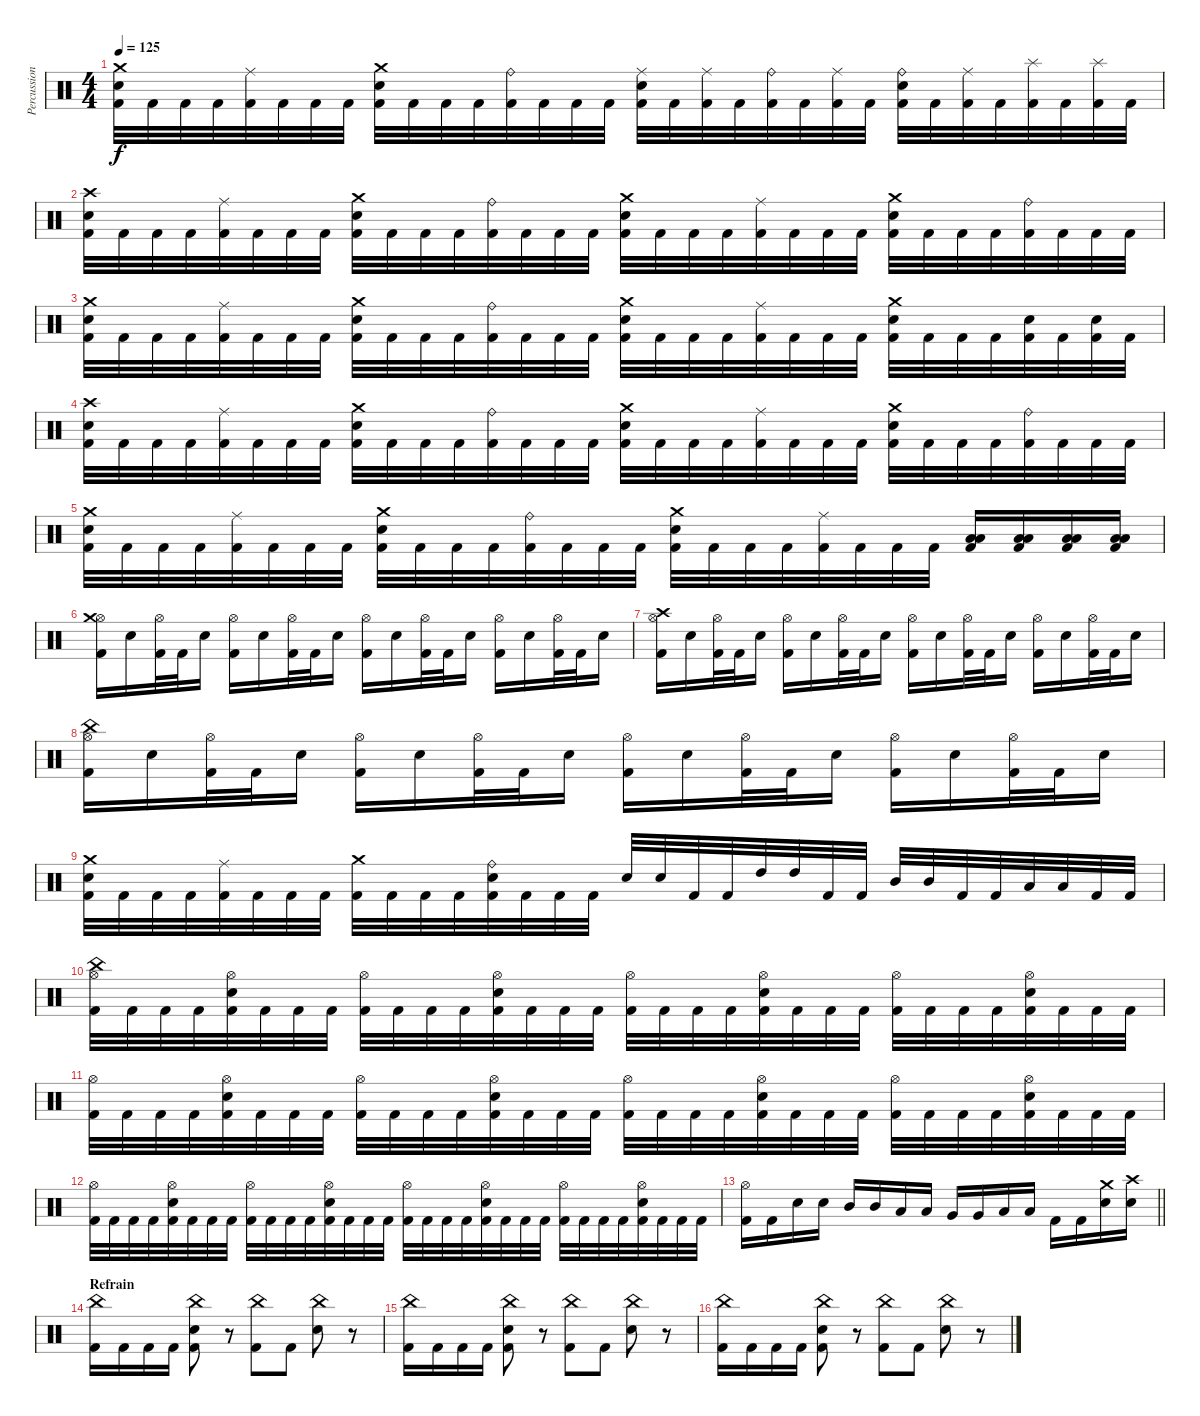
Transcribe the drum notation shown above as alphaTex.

\track ("Percussions" "Percussion") {instrument percussion}
\staff {score}
\articulation defaults
\ts (4 4)
\tempo 125
\clef neutral
\ks c
("Crash medium (hit)" "Electric Snare (hit)" "Kick (hit) 2").32{dy f} "Kick (hit) 2".32 "Kick (hit) 2".32 "Kick (hit) 2".32 ("Ride (middle)" "Kick (hit) 2").32 "Kick (hit) 2".32 "Kick (hit) 2".32 "Kick (hit) 2".32 ("Crash medium (hit)" "Electric Snare (hit)" "Kick (hit) 2").32 "Kick (hit) 2".32 "Kick (hit) 2".32 "Kick (hit) 2".32 ("Ride (bell)" "Kick (hit) 2").32 "Kick (hit) 2".32 "Kick (hit) 2".32 "Kick (hit) 2".32 ("Ride (middle)" "Electric Snare (hit)" "Kick (hit) 2").32 "Kick (hit) 2".32 ("Ride (middle)" "Kick (hit) 2").32 "Kick (hit) 2".32 ("Ride (bell)" "Kick (hit) 2").32 "Kick (hit) 2".32 ("Ride (middle)" "Kick (hit) 2").32 "Kick (hit) 2".32 ("Ride (bell)" "Electric Snare (hit)" "Kick (hit) 2").32 "Kick (hit) 2".32 ("Ride (middle)" "Kick (hit) 2").32 "Kick (hit) 2".32 ("Splash (hit)" "Kick (hit) 2").32 "Kick (hit) 2".32 ("Splash (hit)" "Kick (hit) 2").32 "Kick (hit) 2".32 |
("Crash high (hit)" "Electric Snare (hit)" "Kick (hit) 2").32 "Kick (hit) 2".32 "Kick (hit) 2".32 "Kick (hit) 2".32 ("Ride (middle)" "Kick (hit) 2").32 "Kick (hit) 2".32 "Kick (hit) 2".32 "Kick (hit) 2".32 ("Crash medium (hit)" "Electric Snare (hit)" "Kick (hit) 2").32 "Kick (hit) 2".32 "Kick (hit) 2".32 "Kick (hit) 2".32 ("Ride (bell)" "Kick (hit) 2").32 "Kick (hit) 2".32 "Kick (hit) 2".32 "Kick (hit) 2".32 ("Crash medium (hit)" "Electric Snare (hit)" "Kick (hit) 2").32 "Kick (hit) 2".32 "Kick (hit) 2".32 "Kick (hit) 2".32 ("Ride (middle)" "Kick (hit) 2").32 "Kick (hit) 2".32 "Kick (hit) 2".32 "Kick (hit) 2".32 ("Crash medium (hit)" "Electric Snare (hit)" "Kick (hit) 2").32 "Kick (hit) 2".32 "Kick (hit) 2".32 "Kick (hit) 2".32 ("Ride (bell)" "Kick (hit) 2").32 "Kick (hit) 2".32 "Kick (hit) 2".32 "Kick (hit) 2".32 |
("Crash medium (hit)" "Electric Snare (hit)" "Kick (hit) 2").32 "Kick (hit) 2".32 "Kick (hit) 2".32 "Kick (hit) 2".32 ("Ride (middle)" "Kick (hit) 2").32 "Kick (hit) 2".32 "Kick (hit) 2".32 "Kick (hit) 2".32 ("Crash medium (hit)" "Electric Snare (hit)" "Kick (hit) 2").32 "Kick (hit) 2".32 "Kick (hit) 2".32 "Kick (hit) 2".32 ("Ride (bell)" "Kick (hit) 2").32 "Kick (hit) 2".32 "Kick (hit) 2".32 "Kick (hit) 2".32 ("Crash medium (hit)" "Electric Snare (hit)" "Kick (hit) 2").32 "Kick (hit) 2".32 "Kick (hit) 2".32 "Kick (hit) 2".32 ("Ride (middle)" "Kick (hit) 2").32 "Kick (hit) 2".32 "Kick (hit) 2".32 "Kick (hit) 2".32 ("Crash medium (hit)" "Electric Snare (hit)" "Kick (hit) 2").32 "Kick (hit) 2".32 "Kick (hit) 2".32 "Kick (hit) 2".32 ("Electric Snare (hit)" "Kick (hit) 2").32 "Kick (hit) 2".32 ("Electric Snare (hit)" "Kick (hit) 2").32 "Kick (hit) 2".32 |
("Crash high (hit)" "Electric Snare (hit)" "Kick (hit) 2").32 "Kick (hit) 2".32 "Kick (hit) 2".32 "Kick (hit) 2".32 ("Ride (middle)" "Kick (hit) 2").32 "Kick (hit) 2".32 "Kick (hit) 2".32 "Kick (hit) 2".32 ("Crash medium (hit)" "Electric Snare (hit)" "Kick (hit) 2").32 "Kick (hit) 2".32 "Kick (hit) 2".32 "Kick (hit) 2".32 ("Ride (bell)" "Kick (hit) 2").32 "Kick (hit) 2".32 "Kick (hit) 2".32 "Kick (hit) 2".32 ("Crash medium (hit)" "Electric Snare (hit)" "Kick (hit) 2").32 "Kick (hit) 2".32 "Kick (hit) 2".32 "Kick (hit) 2".32 ("Ride (middle)" "Kick (hit) 2").32 "Kick (hit) 2".32 "Kick (hit) 2".32 "Kick (hit) 2".32 ("Crash medium (hit)" "Electric Snare (hit)" "Kick (hit) 2").32 "Kick (hit) 2".32 "Kick (hit) 2".32 "Kick (hit) 2".32 ("Ride (bell)" "Kick (hit) 2").32 "Kick (hit) 2".32 "Kick (hit) 2".32 "Kick (hit) 2".32 |
("Crash medium (hit)" "Electric Snare (hit)" "Kick (hit) 2").32 "Kick (hit) 2".32 "Kick (hit) 2".32 "Kick (hit) 2".32 ("Ride (middle)" "Kick (hit) 2").32 "Kick (hit) 2".32 "Kick (hit) 2".32 "Kick (hit) 2".32 ("Crash medium (hit)" "Electric Snare (hit)" "Kick (hit) 2").32 "Kick (hit) 2".32 "Kick (hit) 2".32 "Kick (hit) 2".32 ("Ride (bell)" "Kick (hit) 2").32 "Kick (hit) 2".32 "Kick (hit) 2".32 "Kick (hit) 2".32 ("Crash medium (hit)" "Electric Snare (hit)" "Kick (hit) 2").32 "Kick (hit) 2".32 "Kick (hit) 2".32 "Kick (hit) 2".32 ("Ride (middle)" "Kick (hit) 2").32 "Kick (hit) 2".32 "Kick (hit) 2".32 "Kick (hit) 2".32 ("Low Tom (hit)" "Low Floor Tom (hit)" "Kick (hit) 2").16 ("Low Tom (hit)" "Low Floor Tom (hit)" "Kick (hit) 2").16 ("Low Tom (hit)" "Low Floor Tom (hit)" "Kick (hit) 2").16 ("Low Tom (hit)" "Low Floor Tom (hit)" "Kick (hit) 2").16 |
("Hi-Hat (open)" "Crash medium (hit)" "Kick (hit) 2").16 "Electric Snare (hit)".16 ("Hi-Hat (open)" "Kick (hit) 2").32 "Kick (hit) 2".32 "Electric Snare (hit)".16 ("Hi-Hat (open)" "Kick (hit) 2").16 "Electric Snare (hit)".16 ("Hi-Hat (open)" "Kick (hit) 2").32 "Kick (hit) 2".32 "Electric Snare (hit)".16 ("Hi-Hat (open)" "Kick (hit) 2").16 "Electric Snare (hit)".16 ("Hi-Hat (open)" "Kick (hit) 2").32 "Kick (hit) 2".32 "Electric Snare (hit)".16 ("Hi-Hat (open)" "Kick (hit) 2").16 "Electric Snare (hit)".16 ("Hi-Hat (open)" "Kick (hit) 2").32 "Kick (hit) 2".32 "Electric Snare (hit)".16 |
("Hi-Hat (open)" "Crash high (hit)" "Kick (hit) 2").16 "Electric Snare (hit)".16 ("Hi-Hat (open)" "Kick (hit) 2").32 "Kick (hit) 2".32 "Electric Snare (hit)".16 ("Hi-Hat (open)" "Kick (hit) 2").16 "Electric Snare (hit)".16 ("Hi-Hat (open)" "Kick (hit) 2").32 "Kick (hit) 2".32 "Electric Snare (hit)".16 ("Hi-Hat (open)" "Kick (hit) 2").16 "Electric Snare (hit)".16 ("Hi-Hat (open)" "Kick (hit) 2").32 "Kick (hit) 2".32 "Electric Snare (hit)".16 ("Hi-Hat (open)" "Kick (hit) 2").16 "Electric Snare (hit)".16 ("Hi-Hat (open)" "Kick (hit) 2").32 "Kick (hit) 2".32 "Electric Snare (hit)".16 |
("Hi-Hat (open)" "China (hit)" "Kick (hit) 2").16 "Electric Snare (hit)".16 ("Hi-Hat (open)" "Kick (hit) 2").32 "Kick (hit) 2".32 "Electric Snare (hit)".16 ("Hi-Hat (open)" "Kick (hit) 2").16 "Electric Snare (hit)".16 ("Hi-Hat (open)" "Kick (hit) 2").32 "Kick (hit) 2".32 "Electric Snare (hit)".16 ("Hi-Hat (open)" "Kick (hit) 2").16 "Electric Snare (hit)".16 ("Hi-Hat (open)" "Kick (hit) 2").32 "Kick (hit) 2".32 "Electric Snare (hit)".16 ("Hi-Hat (open)" "Kick (hit) 2").16 "Electric Snare (hit)".16 ("Hi-Hat (open)" "Kick (hit) 2").32 "Kick (hit) 2".32 "Electric Snare (hit)".16 |
("Crash medium (hit)" "Electric Snare (hit)" "Kick (hit) 2").32 "Kick (hit) 2".32 "Kick (hit) 2".32 "Kick (hit) 2".32 ("Ride (middle)" "Kick (hit) 2").32 "Kick (hit) 2".32 "Kick (hit) 2".32 "Kick (hit) 2".32 ("Crash medium (hit)" "Kick (hit) 2").32 "Kick (hit) 2".32 "Kick (hit) 2".32 "Kick (hit) 2".32 ("Ride (bell)" "Electric Snare (hit)" "Kick (hit) 2").32 "Kick (hit) 2".32 "Kick (hit) 2".32 "Kick (hit) 2".32 "Electric Snare (hit)".32 "Electric Snare (hit)".32 "Kick (hit) 2".32 "Kick (hit) 2".32 "High Tom (hit)".32 "High Tom (hit)".32 "Kick (hit) 2".32 "Kick (hit) 2".32 "Mid Tom (hit)".32 "Mid Tom (hit)".32 "Kick (hit) 2".32 "Kick (hit) 2".32 "Low Tom (hit)".32 "Low Tom (hit)".32 "Kick (hit) 2".32 "Kick (hit) 2".32 |
("Hi-Hat (open)" "China (hit)" "Kick (hit) 2").32 "Kick (hit) 2".32 "Kick (hit) 2".32 "Kick (hit) 2".32 ("Hi-Hat (open)" "Electric Snare (hit)" "Kick (hit) 2").32 "Kick (hit) 2".32 "Kick (hit) 2".32 "Kick (hit) 2".32 ("Hi-Hat (open)" "Kick (hit) 2").32 "Kick (hit) 2".32 "Kick (hit) 2".32 "Kick (hit) 2".32 ("Hi-Hat (open)" "Electric Snare (hit)" "Kick (hit) 2").32 "Kick (hit) 2".32 "Kick (hit) 2".32 "Kick (hit) 2".32 ("Hi-Hat (open)" "Kick (hit) 2").32 "Kick (hit) 2".32 "Kick (hit) 2".32 "Kick (hit) 2".32 ("Hi-Hat (open)" "Electric Snare (hit)" "Kick (hit) 2").32 "Kick (hit) 2".32 "Kick (hit) 2".32 "Kick (hit) 2".32 ("Hi-Hat (open)" "Kick (hit) 2").32 "Kick (hit) 2".32 "Kick (hit) 2".32 "Kick (hit) 2".32 ("Hi-Hat (open)" "Electric Snare (hit)" "Kick (hit) 2").32 "Kick (hit) 2".32 "Kick (hit) 2".32 "Kick (hit) 2".32 |
("Hi-Hat (open)" "Kick (hit) 2").32 "Kick (hit) 2".32 "Kick (hit) 2".32 "Kick (hit) 2".32 ("Hi-Hat (open)" "Electric Snare (hit)" "Kick (hit) 2").32 "Kick (hit) 2".32 "Kick (hit) 2".32 "Kick (hit) 2".32 ("Hi-Hat (open)" "Kick (hit) 2").32 "Kick (hit) 2".32 "Kick (hit) 2".32 "Kick (hit) 2".32 ("Hi-Hat (open)" "Electric Snare (hit)" "Kick (hit) 2").32 "Kick (hit) 2".32 "Kick (hit) 2".32 "Kick (hit) 2".32 ("Hi-Hat (open)" "Kick (hit) 2").32 "Kick (hit) 2".32 "Kick (hit) 2".32 "Kick (hit) 2".32 ("Hi-Hat (open)" "Electric Snare (hit)" "Kick (hit) 2").32 "Kick (hit) 2".32 "Kick (hit) 2".32 "Kick (hit) 2".32 ("Hi-Hat (open)" "Kick (hit) 2").32 "Kick (hit) 2".32 "Kick (hit) 2".32 "Kick (hit) 2".32 ("Hi-Hat (open)" "Electric Snare (hit)" "Kick (hit) 2").32 "Kick (hit) 2".32 "Kick (hit) 2".32 "Kick (hit) 2".32 |
("Hi-Hat (open)" "Kick (hit) 2").32 "Kick (hit) 2".32 "Kick (hit) 2".32 "Kick (hit) 2".32 ("Hi-Hat (open)" "Electric Snare (hit)" "Kick (hit) 2").32 "Kick (hit) 2".32 "Kick (hit) 2".32 "Kick (hit) 2".32 ("Hi-Hat (open)" "Kick (hit) 2").32 "Kick (hit) 2".32 "Kick (hit) 2".32 "Kick (hit) 2".32 ("Hi-Hat (open)" "Electric Snare (hit)" "Kick (hit) 2").32 "Kick (hit) 2".32 "Kick (hit) 2".32 "Kick (hit) 2".32 ("Hi-Hat (open)" "Kick (hit) 2").32 "Kick (hit) 2".32 "Kick (hit) 2".32 "Kick (hit) 2".32 ("Hi-Hat (open)" "Electric Snare (hit)" "Kick (hit) 2").32 "Kick (hit) 2".32 "Kick (hit) 2".32 "Kick (hit) 2".32 ("Hi-Hat (open)" "Kick (hit) 2").32 "Kick (hit) 2".32 "Kick (hit) 2".32 "Kick (hit) 2".32 ("Hi-Hat (open)" "Electric Snare (hit)" "Kick (hit) 2").32 "Kick (hit) 2".32 "Kick (hit) 2".32 "Kick (hit) 2".32 |
\barLineRight lightlight
("Hi-Hat (open)" "Kick (hit) 2").16 "Kick (hit) 2".16 "Electric Snare (hit)".16 "Electric Snare (hit)".16 "Mid Tom (hit)".16 "Mid Tom (hit)".16 "Low Tom (hit)".16 "Low Tom (hit)".16 "Very Low Tom (hit)".16 "Very Low Tom (hit)".16 "Low Floor Tom (hit)".16 "Low Floor Tom (hit)".16 "Kick (hit) 2".16 "Kick (hit) 2".16 ("Crash medium (hit)" "Electric Snare (hit)").16 ("Crash high (hit)" "Electric Snare (hit)").16 |
\section ("" "Refrain")
("China (hit)" "Kick (hit) 2").16 "Kick (hit) 2".16 "Kick (hit) 2".16 "Kick (hit) 2".16 ("China (hit)" "Electric Snare (hit)" "Kick (hit) 2").8 r.8 ("China (hit)" "Kick (hit) 2").8 "Kick (hit) 2".8 ("China (hit)" "Electric Snare (hit)").8 r.8 |
("China (hit)" "Kick (hit) 2").16 "Kick (hit) 2".16 "Kick (hit) 2".16 "Kick (hit) 2".16 ("China (hit)" "Electric Snare (hit)" "Kick (hit) 2").8 r.8 ("China (hit)" "Kick (hit) 2").8 "Kick (hit) 2".8 ("China (hit)" "Electric Snare (hit)").8 r.8 |
("China (hit)" "Kick (hit) 2").16 "Kick (hit) 2".16 "Kick (hit) 2".16 "Kick (hit) 2".16 ("China (hit)" "Electric Snare (hit)" "Kick (hit) 2").8 r.8 ("China (hit)" "Kick (hit) 2").8 "Kick (hit) 2".8 ("China (hit)" "Electric Snare (hit)").8 r.8
